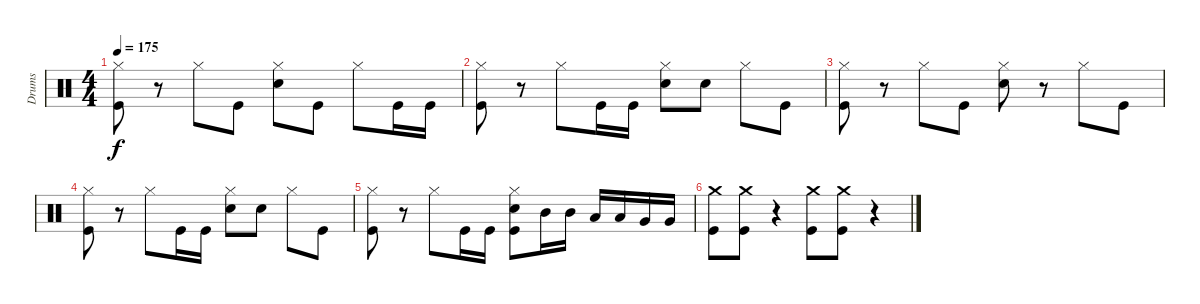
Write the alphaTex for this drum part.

\track ("Drums" "Drums") {instrument percussion}
\staff {score}
\articulation defaults
\ts (4 4)
\tempo 175
\clef neutral
\ks c
("Hi-Hat (closed)" "Kick (hit)").8{dy f} r.8 "Hi-Hat (closed)".8 "Kick (hit)".8 ("Hi-Hat (closed)" "Snare (hit) 2").8 "Kick (hit)".8 "Hi-Hat (closed)".8 "Kick (hit)".16 "Kick (hit)".16 |
("Hi-Hat (closed)" "Kick (hit)").8 r.8 "Hi-Hat (closed)".8 "Kick (hit)".16 "Kick (hit)".16 ("Hi-Hat (closed)" "Snare (hit) 2").8 "Snare (hit) 2".8 "Hi-Hat (closed)".8 "Kick (hit)".8 |
("Hi-Hat (closed)" "Kick (hit)").8 r.8 "Hi-Hat (closed)".8 "Kick (hit)".8 ("Hi-Hat (closed)" "Snare (hit) 2").8 r.8 "Hi-Hat (closed)".8 "Kick (hit)".8 |
("Hi-Hat (closed)" "Kick (hit)").8 r.8 "Hi-Hat (closed)".8 "Kick (hit)".16 "Kick (hit)".16 ("Hi-Hat (closed)" "Snare (hit) 2").8 "Snare (hit) 2".8 "Hi-Hat (closed)".8 "Kick (hit)".8 |
("Hi-Hat (closed)" "Kick (hit)").8 r.8 "Hi-Hat (closed)".8 "Kick (hit)".16 "Kick (hit)".16 ("Hi-Hat (closed)" "Snare (hit) 2" "Kick (hit)").8 "Mid Tom (hit)".16 "Mid Tom (hit)".16 "Low Tom (hit)".16 "Low Tom (hit)".16 "Very Low Tom (hit)".16 "Very Low Tom (hit)".16 |
("Crash medium (hit)" "Kick (hit)").8 ("Crash medium (hit)" "Kick (hit)").8 r.4 ("Crash medium (hit)" "Kick (hit)").8 ("Crash medium (hit)" "Kick (hit)").8 r.4
